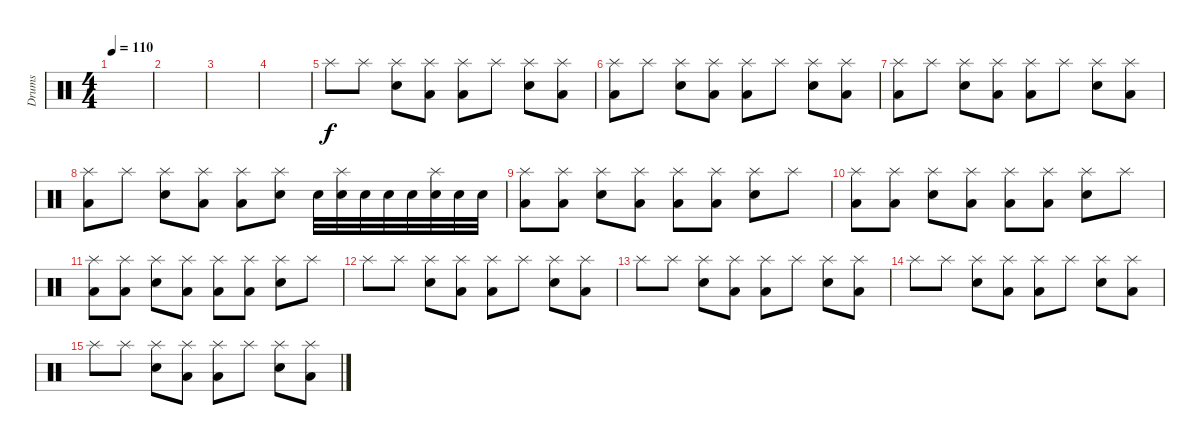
\track ("Drums" "Drums") {instrument percussion}
\staff {score}
\articulation defaults
\ts (4 4)
\tempo 110
\clef neutral
\ks c
|
|
|
|
"Splash (hit)".8 "Splash (hit)".8 ("Splash (hit)" "Snare (hit) 2").8 ("Splash (hit)" "Low Floor Tom (hit)").8 ("Splash (hit)" "Low Floor Tom (hit)").8 "Splash (hit)".8 ("Splash (hit)" "Snare (hit) 2").8 ("Splash (hit)" "Low Floor Tom (hit)").8 |
("Splash (hit)" "Low Floor Tom (hit)").8 "Splash (hit)".8 ("Splash (hit)" "Snare (hit) 2").8 ("Splash (hit)" "Low Floor Tom (hit)").8 ("Splash (hit)" "Low Floor Tom (hit)").8 "Splash (hit)".8 ("Splash (hit)" "Snare (hit) 2").8 ("Splash (hit)" "Low Floor Tom (hit)").8 |
("Splash (hit)" "Low Floor Tom (hit)").8 "Splash (hit)".8 ("Splash (hit)" "Snare (hit) 2").8 ("Splash (hit)" "Low Floor Tom (hit)").8 ("Splash (hit)" "Low Floor Tom (hit)").8 "Splash (hit)".8 ("Splash (hit)" "Snare (hit) 2").8 ("Splash (hit)" "Low Floor Tom (hit)").8 |
("Splash (hit)" "Low Floor Tom (hit)").8 "Splash (hit)".8 ("Splash (hit)" "Snare (hit) 2").8 ("Splash (hit)" "Low Floor Tom (hit)").8 ("Splash (hit)" "Low Floor Tom (hit)").8 ("Splash (hit)" "Snare (hit) 2").8 "Snare (hit) 2".32 ("Splash (hit)" "Snare (hit) 2").32 "Snare (hit) 2".32 "Snare (hit) 2".32 "Snare (hit) 2".32 ("Splash (hit)" "Snare (hit) 2").32 "Snare (hit) 2".32 "Snare (hit) 2".32 |
("Splash (hit)" "Low Floor Tom (hit)").8 ("Splash (hit)" "Low Floor Tom (hit)").8 ("Splash (hit)" "Snare (hit) 2").8 ("Splash (hit)" "Low Floor Tom (hit)").8 ("Splash (hit)" "Low Floor Tom (hit)").8 ("Splash (hit)" "Low Floor Tom (hit)").8 ("Splash (hit)" "Snare (hit) 2").8 "Splash (hit)".8 |
("Splash (hit)" "Low Floor Tom (hit)").8 ("Splash (hit)" "Low Floor Tom (hit)").8 ("Splash (hit)" "Snare (hit) 2").8 ("Splash (hit)" "Low Floor Tom (hit)").8 ("Splash (hit)" "Low Floor Tom (hit)").8 ("Splash (hit)" "Low Floor Tom (hit)").8 ("Splash (hit)" "Snare (hit) 2").8 "Splash (hit)".8 |
("Splash (hit)" "Low Floor Tom (hit)").8 ("Splash (hit)" "Low Floor Tom (hit)").8 ("Splash (hit)" "Snare (hit) 2").8 ("Splash (hit)" "Low Floor Tom (hit)").8 ("Splash (hit)" "Low Floor Tom (hit)").8 ("Splash (hit)" "Low Floor Tom (hit)").8 ("Splash (hit)" "Snare (hit) 2").8 "Splash (hit)".8 |
"Splash (hit)".8 "Splash (hit)".8 ("Splash (hit)" "Snare (hit) 2").8 ("Splash (hit)" "Low Floor Tom (hit)").8 ("Splash (hit)" "Low Floor Tom (hit)").8 "Splash (hit)".8 ("Splash (hit)" "Snare (hit) 2").8 ("Splash (hit)" "Low Floor Tom (hit)").8 |
"Splash (hit)".8 "Splash (hit)".8 ("Splash (hit)" "Snare (hit) 2").8 ("Splash (hit)" "Low Floor Tom (hit)").8 ("Splash (hit)" "Low Floor Tom (hit)").8 "Splash (hit)".8 ("Splash (hit)" "Snare (hit) 2").8 ("Splash (hit)" "Low Floor Tom (hit)").8 |
"Splash (hit)".8 "Splash (hit)".8 ("Splash (hit)" "Snare (hit) 2").8 ("Splash (hit)" "Low Floor Tom (hit)").8 ("Splash (hit)" "Low Floor Tom (hit)").8 "Splash (hit)".8 ("Splash (hit)" "Snare (hit) 2").8 ("Splash (hit)" "Low Floor Tom (hit)").8 |
"Splash (hit)".8 "Splash (hit)".8 ("Splash (hit)" "Snare (hit) 2").8 ("Splash (hit)" "Low Floor Tom (hit)").8 ("Splash (hit)" "Low Floor Tom (hit)").8 "Splash (hit)".8 ("Splash (hit)" "Snare (hit) 2").8 ("Splash (hit)" "Low Floor Tom (hit)").8
